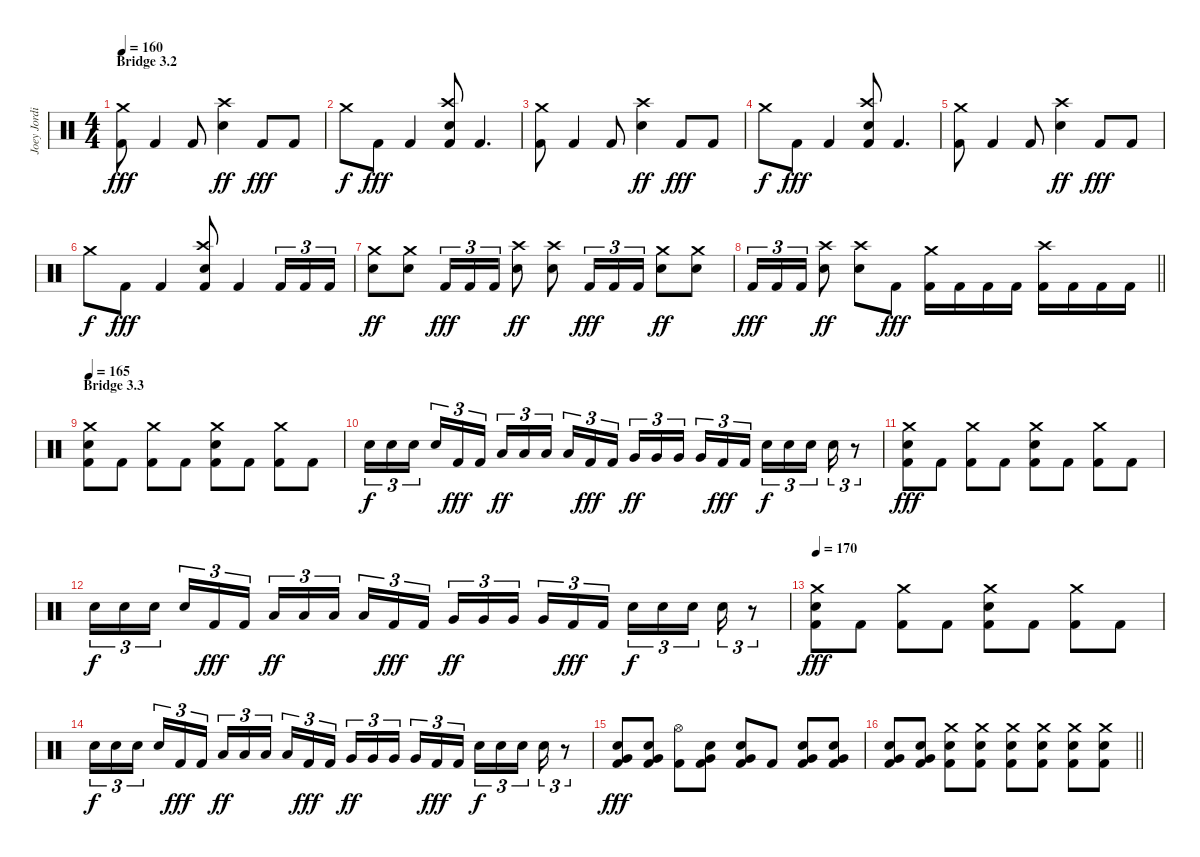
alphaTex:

\track ("Joey Jordison" "Joey Jordi") {instrument percussion}
\staff {score}
\articulation defaults
\ts (4 4)
\section ("" "Bridge 3.2")
\tempo 160
\clef neutral
\ks c
("Crash medium (hit)" "Kick (hit) 2").8{dy fff} "Kick (hit) 2".4 "Kick (hit) 2".8 ("Crash high (hit)" "Electric Snare (hit)").4{dy ff} "Kick (hit) 2".8{dy fff} "Kick (hit) 2".8 |
"Crash medium (hit)".8{dy f} "Kick (hit) 2".8{dy fff} "Kick (hit) 2".4 ("Crash high (hit)" "Electric Snare (hit)" "Kick (hit) 2").8 "Kick (hit) 2".4{d} |
("Crash medium (hit)" "Kick (hit) 2").8 "Kick (hit) 2".4 "Kick (hit) 2".8 ("Crash high (hit)" "Electric Snare (hit)").4{dy ff} "Kick (hit) 2".8{dy fff} "Kick (hit) 2".8 |
"Crash medium (hit)".8{dy f} "Kick (hit) 2".8{dy fff} "Kick (hit) 2".4 ("Crash high (hit)" "Electric Snare (hit)" "Kick (hit) 2").8 "Kick (hit) 2".4{d} |
("Crash medium (hit)" "Kick (hit) 2").8 "Kick (hit) 2".4 "Kick (hit) 2".8 ("Crash high (hit)" "Electric Snare (hit)").4{dy ff} "Kick (hit) 2".8{dy fff} "Kick (hit) 2".8 |
"Crash medium (hit)".8{dy f} "Kick (hit) 2".8{dy fff} "Kick (hit) 2".4 ("Crash high (hit)" "Electric Snare (hit)" "Kick (hit) 2").8 "Kick (hit) 2".4 "Kick (hit) 2".16{tu (3 2)} "Kick (hit) 2".16{tu (3 2)} "Kick (hit) 2".16{tu (3 2)} |
("Crash medium (hit)" "Electric Snare (hit)").8{dy ff} ("Crash medium (hit)" "Electric Snare (hit)").8 "Kick (hit) 2".16{tu (3 2) dy fff} "Kick (hit) 2".16{tu (3 2)} "Kick (hit) 2".16{tu (3 2)} ("Crash high (hit)" "Electric Snare (hit)").8{dy ff} ("Crash high (hit)" "Electric Snare (hit)").8 "Kick (hit) 2".16{tu (3 2) dy fff} "Kick (hit) 2".16{tu (3 2)} "Kick (hit) 2".16{tu (3 2)} ("Crash medium (hit)" "Electric Snare (hit)").8{dy ff} ("Crash medium (hit)" "Electric Snare (hit)").8 |
\barLineRight lightlight "Kick (hit) 2".16{tu (3 2) dy fff} "Kick (hit) 2".16{tu (3 2)} "Kick (hit) 2".16{tu (3 2)}
("Crash high (hit)" "Electric Snare (hit)").8{dy ff} ("Crash high (hit)" "Electric Snare (hit)").8 "Kick (hit) 2".8{dy fff} ("Crash medium (hit)" "Kick (hit) 2").16 "Kick (hit) 2".16 "Kick (hit) 2".16 "Kick (hit) 2".16 ("Crash high (hit)" "Kick (hit) 2").16 "Kick (hit) 2".16 "Kick (hit) 2".16 "Kick (hit) 2".16 |
\section ("" "Bridge 3.3")
\tempo 165
("Crash medium (hit)" "Electric Snare (hit)" "Kick (hit) 2").8 "Kick (hit) 2".8 ("Crash medium (hit)" "Kick (hit) 2").8 "Kick (hit) 2".8 ("Crash medium (hit)" "Electric Snare (hit)" "Kick (hit) 2").8 "Kick (hit) 2".8 ("Crash medium (hit)" "Kick (hit) 2").8 "Kick (hit) 2".8 |
"Electric Snare (hit)".16{tu (3 2) dy f} "Electric Snare (hit)".16{tu (3 2)} "Electric Snare (hit)".16{tu (3 2) beam splitsecondary} "Electric Snare (hit)".16{tu (3 2)} "Kick (hit) 2".16{tu (3 2) dy fff} "Kick (hit) 2".16{tu (3 2)} "Low Tom (hit)".16{tu (3 2) dy ff} "Low Tom (hit)".16{tu (3 2)} "Low Tom (hit)".16{tu (3 2) beam splitsecondary} "Low Tom (hit)".16{tu (3 2)} "Kick (hit) 2".16{tu (3 2) dy fff} "Kick (hit) 2".16{tu (3 2)} "Very Low Tom (hit)".16{tu (3 2) dy ff} "Very Low Tom (hit)".16{tu (3 2)} "Very Low Tom (hit)".16{tu (3 2) beam splitsecondary} "Very Low Tom (hit)".16{tu (3 2)} "Kick (hit) 2".16{tu (3 2) dy fff} "Kick (hit) 2".16{tu (3 2)} "Electric Snare (hit)".16{tu (3 2) dy f} "Electric Snare (hit)".16{tu (3 2)} "Electric Snare (hit)".16{tu (3 2) beam splitsecondary} "Electric Snare (hit)".16{tu (3 2)} r.8{tu (3 2)} |
("Crash medium (hit)" "Electric Snare (hit)" "Kick (hit) 2").8{dy fff} "Kick (hit) 2".8 ("Crash medium (hit)" "Kick (hit) 2").8 "Kick (hit) 2".8 ("Crash medium (hit)" "Electric Snare (hit)" "Kick (hit) 2").8 "Kick (hit) 2".8 ("Crash medium (hit)" "Kick (hit) 2").8 "Kick (hit) 2".8 |
"Electric Snare (hit)".16{tu (3 2) dy f} "Electric Snare (hit)".16{tu (3 2)} "Electric Snare (hit)".16{tu (3 2) beam splitsecondary} "Electric Snare (hit)".16{tu (3 2)} "Kick (hit) 2".16{tu (3 2) dy fff} "Kick (hit) 2".16{tu (3 2)} "Low Tom (hit)".16{tu (3 2) dy ff} "Low Tom (hit)".16{tu (3 2)} "Low Tom (hit)".16{tu (3 2) beam splitsecondary} "Low Tom (hit)".16{tu (3 2)} "Kick (hit) 2".16{tu (3 2) dy fff} "Kick (hit) 2".16{tu (3 2)} "Very Low Tom (hit)".16{tu (3 2) dy ff} "Very Low Tom (hit)".16{tu (3 2)} "Very Low Tom (hit)".16{tu (3 2) beam splitsecondary} "Very Low Tom (hit)".16{tu (3 2)} "Kick (hit) 2".16{tu (3 2) dy fff} "Kick (hit) 2".16{tu (3 2)} "Electric Snare (hit)".16{tu (3 2) dy f} "Electric Snare (hit)".16{tu (3 2)} "Electric Snare (hit)".16{tu (3 2) beam splitsecondary} "Electric Snare (hit)".16{tu (3 2)} r.8{tu (3 2)} |
\tempo 170
("Crash medium (hit)" "Electric Snare (hit)" "Kick (hit) 2").8{dy fff} "Kick (hit) 2".8 ("Crash medium (hit)" "Kick (hit) 2").8 "Kick (hit) 2".8 ("Crash medium (hit)" "Electric Snare (hit)" "Kick (hit) 2").8 "Kick (hit) 2".8 ("Crash medium (hit)" "Kick (hit) 2").8 "Kick (hit) 2".8 |
"Electric Snare (hit)".16{tu (3 2) dy f} "Electric Snare (hit)".16{tu (3 2)} "Electric Snare (hit)".16{tu (3 2) beam splitsecondary} "Electric Snare (hit)".16{tu (3 2)} "Kick (hit) 2".16{tu (3 2) dy fff} "Kick (hit) 2".16{tu (3 2)} "Low Tom (hit)".16{tu (3 2) dy ff} "Low Tom (hit)".16{tu (3 2)} "Low Tom (hit)".16{tu (3 2) beam splitsecondary} "Low Tom (hit)".16{tu (3 2)} "Kick (hit) 2".16{tu (3 2) dy fff} "Kick (hit) 2".16{tu (3 2)} "Very Low Tom (hit)".16{tu (3 2) dy ff} "Very Low Tom (hit)".16{tu (3 2)} "Very Low Tom (hit)".16{tu (3 2) beam splitsecondary} "Very Low Tom (hit)".16{tu (3 2)} "Kick (hit) 2".16{tu (3 2) dy fff} "Kick (hit) 2".16{tu (3 2)} "Electric Snare (hit)".16{tu (3 2) dy f} "Electric Snare (hit)".16{tu (3 2)} "Electric Snare (hit)".16{tu (3 2) beam splitsecondary} "Electric Snare (hit)".16{tu (3 2)} r.8{tu (3 2)} |
("Electric Snare (hit)" "Very Low Tom (hit)" "Kick (hit) 2").8{dy fff} ("Electric Snare (hit)" "Very Low Tom (hit)" "Kick (hit) 2").8 ("Hi-Hat (open)" "Kick (hit) 2").8 ("Electric Snare (hit)" "Very Low Tom (hit)" "Kick (hit) 2").8 ("Electric Snare (hit)" "Very Low Tom (hit)" "Kick (hit) 2").8 "Kick (hit) 2".8 ("Electric Snare (hit)" "Very Low Tom (hit)" "Kick (hit) 2").8 ("Electric Snare (hit)" "Very Low Tom (hit)" "Kick (hit) 2").8 |
\barLineRight lightlight
("Electric Snare (hit)" "Very Low Tom (hit)" "Kick (hit) 2").8 ("Electric Snare (hit)" "Very Low Tom (hit)" "Kick (hit) 2").8 ("Crash medium (hit)" "Electric Snare (hit)" "Kick (hit) 2").8 ("Crash medium (hit)" "Electric Snare (hit)" "Kick (hit) 2").8 ("Crash medium (hit)" "Electric Snare (hit)" "Kick (hit) 2").8 ("Crash medium (hit)" "Electric Snare (hit)" "Kick (hit) 2").8 ("Crash medium (hit)" "Electric Snare (hit)" "Kick (hit) 2").8 ("Crash medium (hit)" "Electric Snare (hit)" "Kick (hit) 2").8
